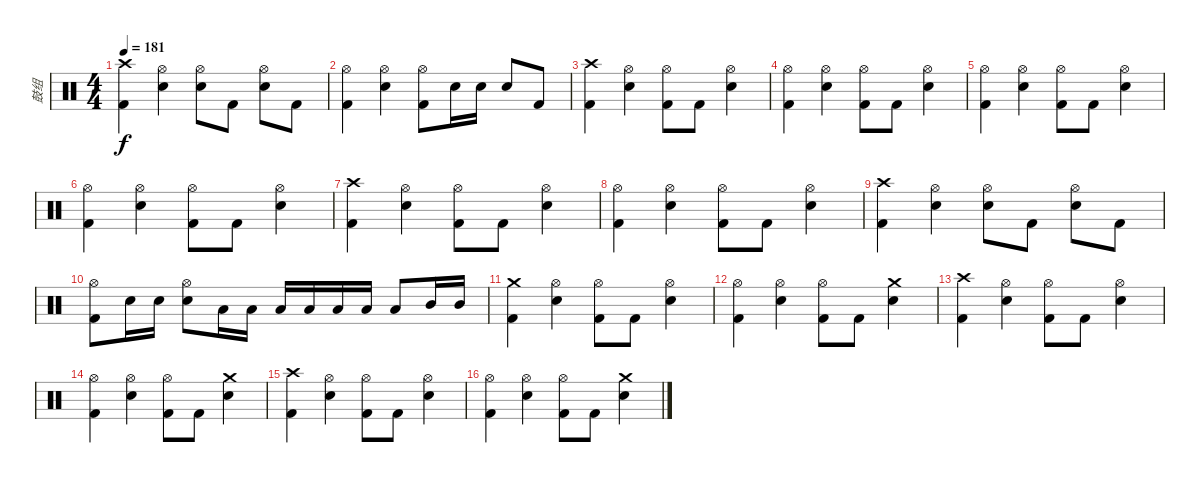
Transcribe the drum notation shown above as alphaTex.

\track ("鼓组" "鼓组") {instrument percussion}
\staff {score}
\articulation defaults
\ts (4 4)
\tempo 181
\clef neutral
\ks c
("Crash high (hit)" "Kick (hit) 2").4{dy f} ("Hi-Hat (open)" "Snare (hit) 2").4 ("Hi-Hat (open)" "Snare (hit) 2").8 "Kick (hit) 2".8 ("Hi-Hat (open)" "Snare (hit) 2").8 "Kick (hit) 2".8 |
("Hi-Hat (open)" "Kick (hit) 2").4 ("Hi-Hat (open)" "Snare (hit) 2").4 ("Hi-Hat (open)" "Kick (hit) 2").8 "Snare (hit) 2".16 "Snare (hit) 2".16 "Snare (hit) 2".8 "Kick (hit) 2".8 |
("Crash high (hit)" "Kick (hit) 2").4 ("Hi-Hat (open)" "Snare (hit) 2").4 ("Hi-Hat (open)" "Kick (hit) 2").8 "Kick (hit) 2".8 ("Hi-Hat (open)" "Snare (hit) 2").4 |
("Hi-Hat (open)" "Kick (hit) 2").4 ("Hi-Hat (open)" "Snare (hit) 2").4 ("Hi-Hat (open)" "Kick (hit) 2").8 "Kick (hit) 2".8 ("Hi-Hat (open)" "Snare (hit) 2").4 |
("Hi-Hat (open)" "Kick (hit) 2").4 ("Hi-Hat (open)" "Snare (hit) 2").4 ("Hi-Hat (open)" "Kick (hit) 2").8 "Kick (hit) 2".8 ("Hi-Hat (open)" "Snare (hit) 2").4 |
("Hi-Hat (open)" "Kick (hit) 2").4 ("Hi-Hat (open)" "Snare (hit) 2").4 ("Hi-Hat (open)" "Kick (hit) 2").8 "Kick (hit) 2".8 ("Hi-Hat (open)" "Snare (hit) 2").4 |
("Crash high (hit)" "Kick (hit) 2").4 ("Hi-Hat (open)" "Snare (hit) 2").4 ("Hi-Hat (open)" "Kick (hit) 2").8 "Kick (hit) 2".8 ("Hi-Hat (open)" "Snare (hit) 2").4 |
("Hi-Hat (open)" "Kick (hit) 2").4 ("Hi-Hat (open)" "Snare (hit) 2").4 ("Hi-Hat (open)" "Kick (hit) 2").8 "Kick (hit) 2".8 ("Hi-Hat (open)" "Snare (hit) 2").4 |
("Crash high (hit)" "Kick (hit) 2").4 ("Hi-Hat (open)" "Snare (hit) 2").4 ("Hi-Hat (open)" "Snare (hit) 2").8 "Kick (hit) 2".8 ("Hi-Hat (open)" "Snare (hit) 2").8 "Kick (hit) 2".8 |
("Hi-Hat (open)" "Kick (hit) 2").8 "Snare (hit) 2".16 "Snare (hit) 2".16 ("Hi-Hat (open)" "Snare (hit) 2").8 "Low Tom (hit)".16 "Low Tom (hit)".16 "Low Tom (hit)".16 "Low Tom (hit)".16 "Low Floor Tom (hit)".16 "Low Floor Tom (hit)".16 "Low Floor Tom (hit)".8 "Mid Tom (hit)".16 "Mid Tom (hit)".16 |
("Crash medium (hit)" "Kick (hit) 2").4 ("Hi-Hat (open)" "Snare (hit) 2").4 ("Hi-Hat (open)" "Kick (hit) 2").8 "Kick (hit) 2".8 ("Hi-Hat (open)" "Snare (hit) 2").4 |
("Hi-Hat (open)" "Kick (hit) 2").4 ("Hi-Hat (open)" "Snare (hit) 2").4 ("Hi-Hat (open)" "Kick (hit) 2").8 "Kick (hit) 2".8 ("Crash medium (hit)" "Snare (hit) 2").4 |
("Crash high (hit)" "Kick (hit) 2").4 ("Hi-Hat (open)" "Snare (hit) 2").4 ("Hi-Hat (open)" "Kick (hit) 2").8 "Kick (hit) 2".8 ("Hi-Hat (open)" "Snare (hit) 2").4 |
("Hi-Hat (open)" "Kick (hit) 2").4 ("Hi-Hat (open)" "Snare (hit) 2").4 ("Hi-Hat (open)" "Kick (hit) 2").8 "Kick (hit) 2".8 ("Crash medium (hit)" "Snare (hit) 2").4 |
("Crash high (hit)" "Kick (hit) 2").4 ("Hi-Hat (open)" "Snare (hit) 2").4 ("Hi-Hat (open)" "Kick (hit) 2").8 "Kick (hit) 2".8 ("Hi-Hat (open)" "Snare (hit) 2").4 |
("Hi-Hat (open)" "Kick (hit) 2").4 ("Hi-Hat (open)" "Snare (hit) 2").4 ("Hi-Hat (open)" "Kick (hit) 2").8 "Kick (hit) 2".8 ("Crash medium (hit)" "Snare (hit) 2").4
